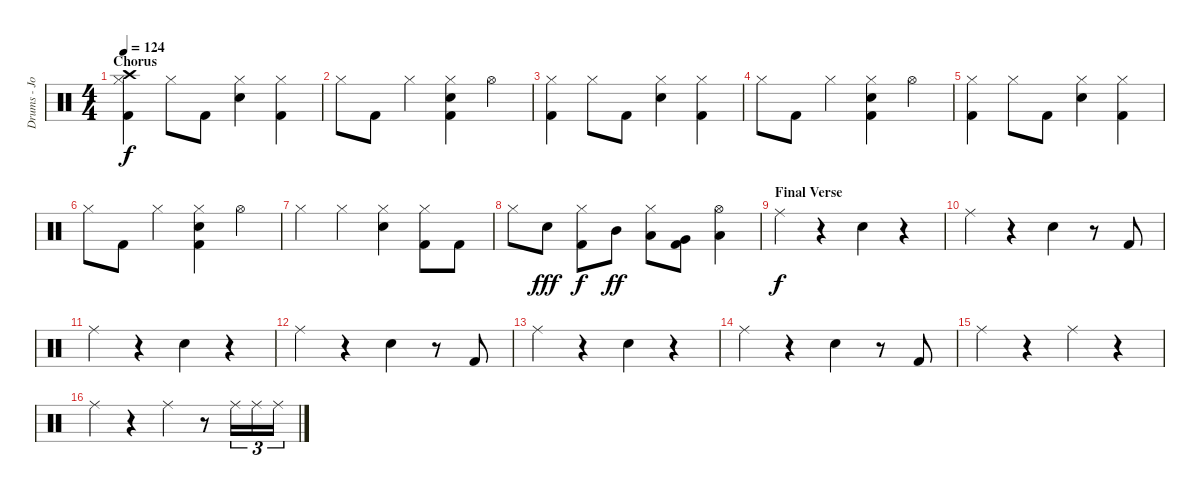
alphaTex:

\track ("Drums - John Humphrey" "Drums - Jo") {instrument percussion}
\staff {score}
\articulation defaults
\ts (4 4)
\section ("" "Chorus")
\tempo 124
\clef neutral
\ks c
("Hi-Hat (closed)" "Crash high (hit)" "Kick (hit) 2").4{dy f} "Hi-Hat (closed)".8 "Kick (hit) 2".8 ("Hi-Hat (closed)" "Electric Snare (hit)").4 ("Hi-Hat (closed)" "Kick (hit) 2").4 |
"Hi-Hat (closed)".8 "Kick (hit) 2".8 "Hi-Hat (closed)".4 ("Hi-Hat (closed)" "Electric Snare (hit)" "Kick (hit) 2").4 "Hi-Hat (open)".4 |
("Hi-Hat (closed)" "Kick (hit) 2").4 "Hi-Hat (closed)".8 "Kick (hit) 2".8 ("Hi-Hat (closed)" "Electric Snare (hit)").4 ("Hi-Hat (closed)" "Kick (hit) 2").4 |
"Hi-Hat (closed)".8 "Kick (hit) 2".8 "Hi-Hat (closed)".4 ("Hi-Hat (closed)" "Electric Snare (hit)" "Kick (hit) 2").4 "Hi-Hat (open)".4 |
("Hi-Hat (closed)" "Kick (hit) 2").4 "Hi-Hat (closed)".8 "Kick (hit) 2".8 ("Hi-Hat (closed)" "Electric Snare (hit)").4 ("Hi-Hat (closed)" "Kick (hit) 2").4 |
"Hi-Hat (closed)".8 "Kick (hit) 2".8 "Hi-Hat (closed)".4 ("Hi-Hat (closed)" "Electric Snare (hit)" "Kick (hit) 2").4 "Hi-Hat (open)".4 |
"Hi-Hat (closed)".4 "Hi-Hat (closed)".4 ("Hi-Hat (closed)" "Electric Snare (hit)").4 ("Hi-Hat (closed)" "Kick (hit) 2").8 "Kick (hit) 2".8 |
"Hi-Hat (closed)".8 "Electric Snare (hit)".8{dy fff} ("Hi-Hat (closed)" "Kick (hit) 2").8{dy f} "Mid Tom (hit)".8{dy ff} ("Hi-Hat (closed)" "Low Tom (hit)").8 ("Very Low Tom (hit)" "Kick (hit) 2").8 ("Hi-Hat (open)" "Low Floor Tom (hit)").4 |
\section ("" "Final Verse")
"Ride (middle)".4{dy f} r.4 "Electric Snare (hit)".4 r.4 |
"Ride (middle)".4 r.4 "Electric Snare (hit)".4 r.8 "Kick (hit) 2".8 |
"Ride (middle)".4 r.4 "Electric Snare (hit)".4 r.4 |
"Ride (middle)".4 r.4 "Electric Snare (hit)".4 r.8 "Kick (hit) 2".8 |
"Ride (middle)".4 r.4 "Electric Snare (hit)".4 r.4 |
"Ride (middle)".4 r.4 "Electric Snare (hit)".4 r.8 "Kick (hit) 2".8 |
"Ride (middle)".4 r.4 "Ride (middle)".4 r.4 |
"Ride (middle)".4 r.4 "Ride (middle)".4 r.8 "Ride (middle)".16{tu (3 2)} "Ride (middle)".16{tu (3 2)} "Ride (middle)".16{tu (3 2)}
